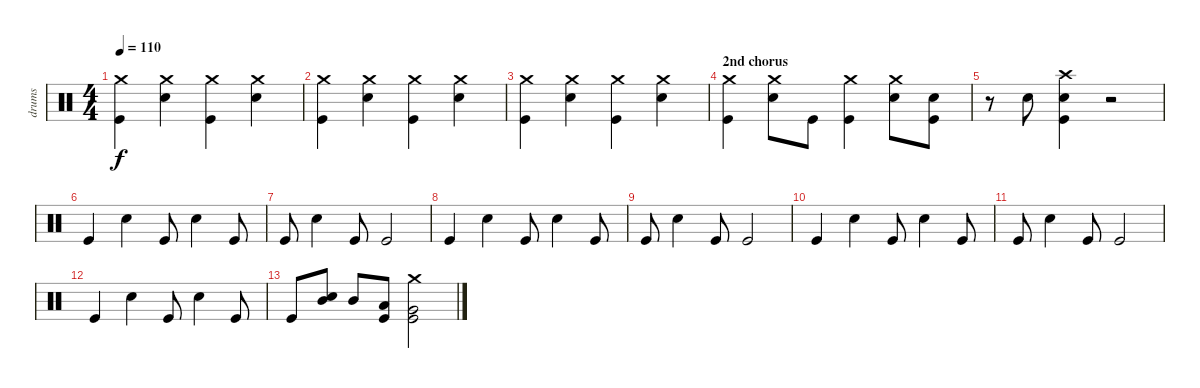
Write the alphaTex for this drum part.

\track ("drums" "drums") {instrument percussion}
\staff {score}
\articulation defaults
\ts (4 4)
\tempo 110
\clef neutral
\ks c
("Crash medium (hit)" "Kick (hit)").4{dy f} ("Crash medium (hit)" "Snare (hit) 2").4 ("Crash medium (hit)" "Kick (hit)").4 ("Crash medium (hit)" "Snare (hit) 2").4 |
("Crash medium (hit)" "Kick (hit)").4 ("Crash medium (hit)" "Snare (hit) 2").4 ("Crash medium (hit)" "Kick (hit)").4 ("Crash medium (hit)" "Snare (hit) 2").4 |
("Crash medium (hit)" "Kick (hit)").4 ("Crash medium (hit)" "Snare (hit) 2").4 ("Crash medium (hit)" "Kick (hit)").4 ("Crash medium (hit)" "Snare (hit) 2").4 |
\section ("" "2nd chorus")
("Crash medium (hit)" "Kick (hit)").4 ("Crash medium (hit)" "Snare (hit) 2").8 "Kick (hit)".8 ("Crash medium (hit)" "Kick (hit)").4 ("Crash medium (hit)" "Snare (hit) 2").8 ("Snare (hit) 2" "Kick (hit)").8 |
r.8 "Snare (hit) 2".8 ("Crash high (hit)" "Snare (hit) 2" "Kick (hit)").4 r.2 |
"Kick (hit)".4 "Snare (hit) 2".4 "Kick (hit)".8 "Snare (hit) 2".4 "Kick (hit)".8 |
"Kick (hit)".8 "Snare (hit) 2".4 "Kick (hit)".8 "Kick (hit)".2 |
"Kick (hit)".4 "Snare (hit) 2".4 "Kick (hit)".8 "Snare (hit) 2".4 "Kick (hit)".8 |
"Kick (hit)".8 "Snare (hit) 2".4 "Kick (hit)".8 "Kick (hit)".2 |
"Kick (hit)".4 "Snare (hit) 2".4 "Kick (hit)".8 "Snare (hit) 2".4 "Kick (hit)".8 |
"Kick (hit)".8 "Snare (hit) 2".4 "Kick (hit)".8 "Kick (hit)".2 |
"Kick (hit)".4 "Snare (hit) 2".4 "Kick (hit)".8 "Snare (hit) 2".4 "Kick (hit)".8 |
"Kick (hit)".8 ("Mid Tom (hit)" "Snare (hit) 2").8 "Mid Tom (hit)".8 ("Low Tom (hit)" "Kick (hit)").8 ("Crash medium (hit)" "Very Low Tom (hit)" "Kick (hit)").2
